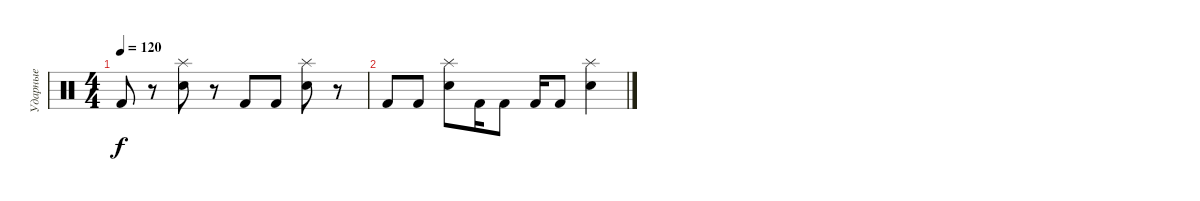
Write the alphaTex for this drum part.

\track ("Ударные" "Ударные") {instrument percussion}
\staff {score}
\articulation defaults
\ts (4 4)
\tempo 120
\clef neutral
\ks c "Kick (hit) 2".8{dy f}
r.8 ("Electric Snare (hit)" "Splash (hit)").8 r.8 "Kick (hit) 2".8 "Kick (hit) 2".8 ("Electric Snare (hit)" "Splash (hit)").8 r.8 |
"Kick (hit) 2".8 "Kick (hit) 2".8 ("Electric Snare (hit)" "Splash (hit)").8 "Kick (hit) 2".16 "Kick (hit) 2".8 "Kick (hit) 2".16 "Kick (hit) 2".8 ("Electric Snare (hit)" "Splash (hit)").4
